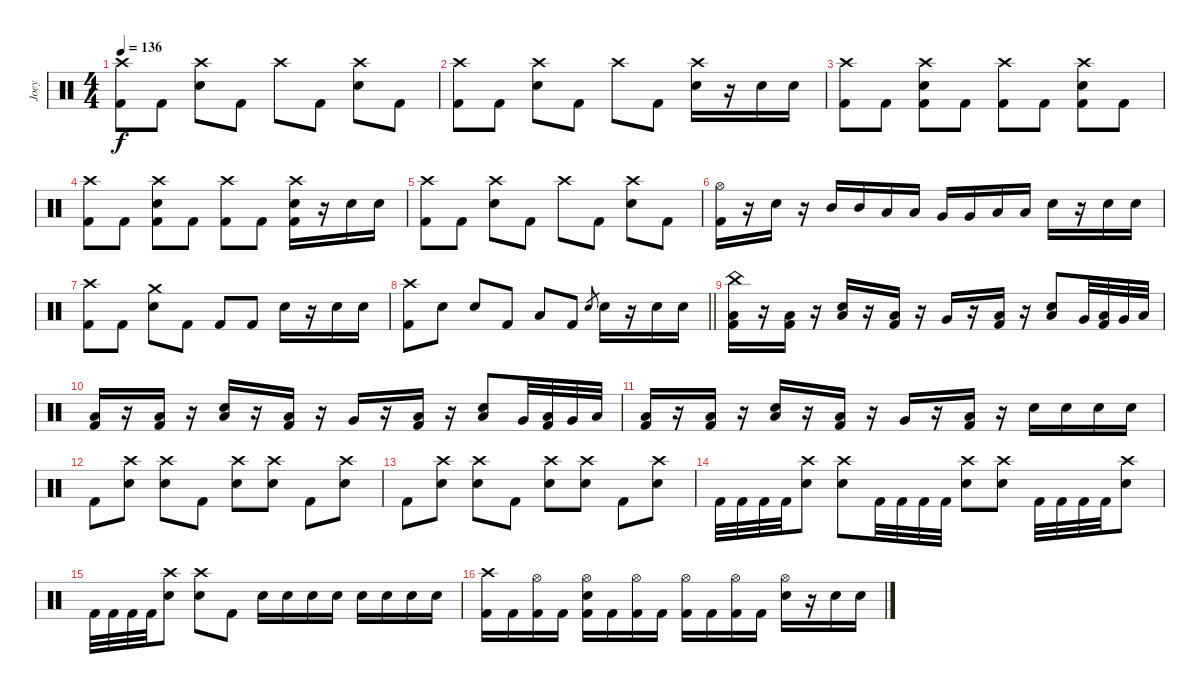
\track ("Joey" "Joey") {instrument percussion}
\staff {score}
\articulation defaults
\ts (4 4)
\tempo 136
\clef neutral
\ks c
("Crash high (hit)" "Kick (hit) 2").8{dy f} "Kick (hit) 2".8 ("Crash high (hit)" "Snare (hit) 2").8 "Kick (hit) 2".8 "Crash high (hit)".8 "Kick (hit) 2".8 ("Crash high (hit)" "Snare (hit) 2").8 "Kick (hit) 2".8 |
("Crash high (hit)" "Kick (hit) 2").8 "Kick (hit) 2".8 ("Crash high (hit)" "Snare (hit) 2").8 "Kick (hit) 2".8 "Crash high (hit)".8 "Kick (hit) 2".8 ("Crash high (hit)" "Snare (hit) 2").16 r.16 "Snare (hit) 2".16 "Snare (hit) 2".16 |
("Crash high (hit)" "Kick (hit) 2").8 "Kick (hit) 2".8 ("Crash high (hit)" "Snare (hit) 2" "Kick (hit) 2").8 "Kick (hit) 2".8 ("Crash high (hit)" "Kick (hit) 2").8 "Kick (hit) 2".8 ("Crash high (hit)" "Snare (hit) 2" "Kick (hit) 2").8 "Kick (hit) 2".8 |
("Crash high (hit)" "Kick (hit) 2").8 "Kick (hit) 2".8 ("Crash high (hit)" "Snare (hit) 2" "Kick (hit) 2").8 "Kick (hit) 2".8 ("Crash high (hit)" "Kick (hit) 2").8 "Kick (hit) 2".8 ("Crash high (hit)" "Snare (hit) 2" "Kick (hit) 2").16 r.16 "Snare (hit) 2".16 "Snare (hit) 2".16 |
("Crash high (hit)" "Kick (hit) 2").8 "Kick (hit) 2".8 ("Crash high (hit)" "Snare (hit) 2").8 "Kick (hit) 2".8 "Crash high (hit)".8 "Kick (hit) 2".8 ("Crash high (hit)" "Snare (hit) 2").8 "Kick (hit) 2".8 |
("Hi-Hat (open)" "Kick (hit) 2").16 r.16 "Snare (hit) 2".16 r.16 "Mid Tom (hit)".16 "Mid Tom (hit)".16 "Low Tom (hit)".16 "Low Tom (hit)".16 "Very Low Tom (hit)".16 "Very Low Tom (hit)".16 "Low Floor Tom (hit)".16 "Low Floor Tom (hit)".16 "Snare (hit) 2".16 r.16 "Snare (hit) 2".16 "Snare (hit) 2".16 |
("Crash high (hit)" "Kick (hit) 2").8 "Kick (hit) 2".8 ("Crash medium (hit)" "Snare (hit) 2").8 "Kick (hit) 2".8 "Kick (hit) 2".8 "Kick (hit) 2".8 "Snare (hit) 2".16 r.16 "Snare (hit) 2".16 "Snare (hit) 2".16 |
\barLineRight lightlight
("Crash high (hit)" "Kick (hit) 2").8 "Snare (hit) 2".8 "Snare (hit) 2".8 "Kick (hit) 2".8 "Low Floor Tom (hit)".8 "Kick (hit) 2".8 "Snare (hit) 2".8{gr} "Snare (hit) 2".16 r.16 "Snare (hit) 2".16 "Snare (hit) 2".16 |
("China (hit)" "Low Floor Tom (hit)" "Kick (hit) 2").16 r.16 ("Low Floor Tom (hit)" "Kick (hit) 2").16 r.16 ("Low Floor Tom (hit)" "Snare (hit) 2").16 r.16 ("Low Floor Tom (hit)" "Kick (hit) 2").16 r.16 "Very Low Tom (hit)".16 r.16 ("Low Floor Tom (hit)" "Kick (hit) 2").16 r.16 ("Low Floor Tom (hit)" "Snare (hit) 2").8 "Very Low Tom (hit)".32 ("Low Floor Tom (hit)" "Kick (hit) 2").32 "Very Low Tom (hit)".32 "Low Floor Tom (hit)".32 |
("Low Floor Tom (hit)" "Kick (hit) 2").16 r.16 ("Low Floor Tom (hit)" "Kick (hit) 2").16 r.16 ("Low Floor Tom (hit)" "Snare (hit) 2").16 r.16 ("Low Floor Tom (hit)" "Kick (hit) 2").16 r.16 "Very Low Tom (hit)".16 r.16 ("Low Floor Tom (hit)" "Kick (hit) 2").16 r.16 ("Low Floor Tom (hit)" "Snare (hit) 2").8 "Very Low Tom (hit)".32 ("Low Floor Tom (hit)" "Kick (hit) 2").32 "Very Low Tom (hit)".32 "Low Floor Tom (hit)".32 |
("Low Floor Tom (hit)" "Kick (hit) 2").16 r.16 ("Low Floor Tom (hit)" "Kick (hit) 2").16 r.16 ("Low Floor Tom (hit)" "Snare (hit) 2").16 r.16 ("Low Floor Tom (hit)" "Kick (hit) 2").16 r.16 "Very Low Tom (hit)".16 r.16 ("Low Floor Tom (hit)" "Kick (hit) 2").16 r.16 "Snare (hit) 2".16 "Snare (hit) 2".16 "Snare (hit) 2".16 "Snare (hit) 2".16 |
"Kick (hit) 2".8 ("Crash high (hit)" "Snare (hit) 2").8 ("Crash high (hit)" "Snare (hit) 2").8 "Kick (hit) 2".8 ("Crash high (hit)" "Snare (hit) 2").8 ("Crash high (hit)" "Snare (hit) 2").8 "Kick (hit) 2".8 ("Crash high (hit)" "Snare (hit) 2").8 |
"Kick (hit) 2".8 ("Crash high (hit)" "Snare (hit) 2").8 ("Crash high (hit)" "Snare (hit) 2").8 "Kick (hit) 2".8 ("Crash high (hit)" "Snare (hit) 2").8 ("Crash high (hit)" "Snare (hit) 2").8 "Kick (hit) 2".8 ("Crash high (hit)" "Snare (hit) 2").8 |
"Kick (hit) 2".32 "Kick (hit) 2".32 "Kick (hit) 2".32 "Kick (hit) 2".32 ("Crash high (hit)" "Snare (hit) 2").8 ("Crash high (hit)" "Snare (hit) 2").8 "Kick (hit) 2".32 "Kick (hit) 2".32 "Kick (hit) 2".32 "Kick (hit) 2".32 ("Crash high (hit)" "Snare (hit) 2").8 ("Crash high (hit)" "Snare (hit) 2").8 "Kick (hit) 2".32 "Kick (hit) 2".32 "Kick (hit) 2".32 "Kick (hit) 2".32 ("Crash high (hit)" "Snare (hit) 2").8 |
"Kick (hit) 2".32 "Kick (hit) 2".32 "Kick (hit) 2".32 "Kick (hit) 2".32 ("Crash high (hit)" "Snare (hit) 2").8 ("Crash high (hit)" "Snare (hit) 2").8 "Kick (hit) 2".8 "Snare (hit) 2".16 "Snare (hit) 2".16 "Snare (hit) 2".16 "Snare (hit) 2".16 "Snare (hit) 2".16 "Snare (hit) 2".16 "Snare (hit) 2".16 "Snare (hit) 2".16 |
("Crash high (hit)" "Kick (hit) 2").16 "Kick (hit) 2".16 ("Hi-Hat (open)" "Kick (hit) 2").16 "Kick (hit) 2".16 ("Hi-Hat (open)" "Snare (hit) 2" "Kick (hit) 2").16 "Kick (hit) 2".16 ("Hi-Hat (open)" "Kick (hit) 2").16 "Kick (hit) 2".16 ("Hi-Hat (open)" "Kick (hit) 2").16 "Kick (hit) 2".16 ("Hi-Hat (open)" "Kick (hit) 2").16 "Kick (hit) 2".16 ("Hi-Hat (open)" "Snare (hit) 2").16 r.16 "Snare (hit) 2".16 "Snare (hit) 2".16
